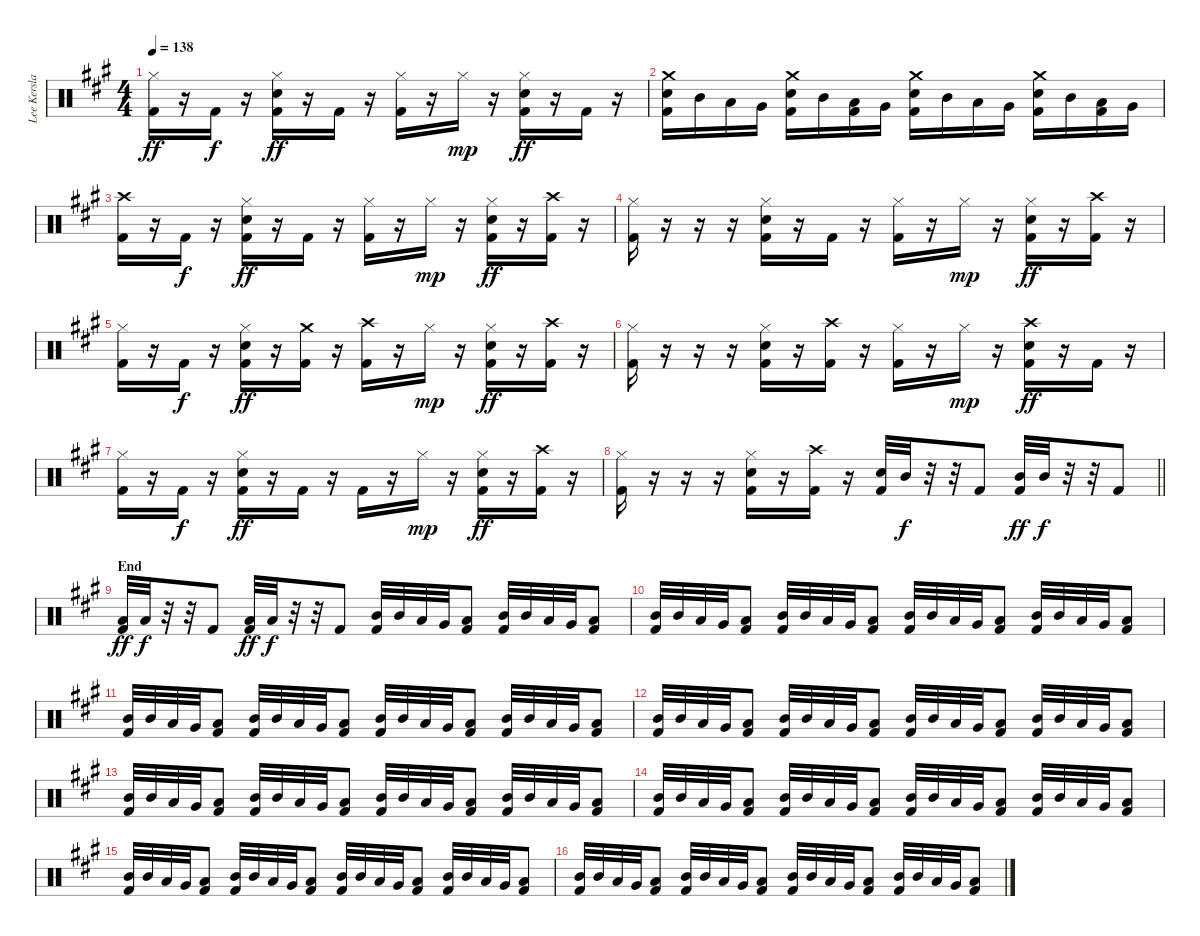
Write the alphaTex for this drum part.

\track ("Lee Kerslake" "Lee Kersla") {instrument percussion}
\staff {score}
\articulation defaults
\ts (4 4)
\tempo 138
\clef neutral
\ks a
("Hi-Hat (closed)" "Kick (hit) 2").16{dy ff} r.16 "Kick (hit) 2".16{dy f} r.16 ("Hi-Hat (closed)" "Snare (hit) 2" "Kick (hit) 2").16{dy ff} r.16 "Kick (hit) 2".16 r.16 ("Hi-Hat (closed)" "Kick (hit) 2").16 r.16 "Hi-Hat (closed)".16{dy mp} r.16 ("Hi-Hat (closed)" "Snare (hit) 2" "Kick (hit) 2").16{dy ff} r.16 "Kick (hit) 2".16 r.16 |
("Crash medium (hit)" "Snare (hit) 2" "Kick (hit) 2").16 "Mid Tom (hit)".16 "Low Tom (hit)".16 "Very Low Tom (hit)".16 ("Crash medium (hit)" "Snare (hit) 2" "Kick (hit) 2").16 "Mid Tom (hit)".16 ("Low Tom (hit)" "Kick (hit) 2").16 "Very Low Tom (hit)".16 ("Crash medium (hit)" "Snare (hit) 2" "Kick (hit) 2").16 "Mid Tom (hit)".16 "Low Tom (hit)".16 "Very Low Tom (hit)".16 ("Crash medium (hit)" "Snare (hit) 2" "Kick (hit) 2").16 "Mid Tom (hit)".16 ("Low Tom (hit)" "Kick (hit) 2").16 "Very Low Tom (hit)".16 |
("Crash high (hit)" "Kick (hit) 2").16 r.16 "Kick (hit) 2".16{dy f} r.16 ("Hi-Hat (closed)" "Snare (hit) 2" "Kick (hit) 2").16{dy ff} r.16 "Kick (hit) 2".16 r.16 ("Hi-Hat (closed)" "Kick (hit) 2").16 r.16 "Hi-Hat (closed)".16{dy mp} r.16 ("Hi-Hat (closed)" "Snare (hit) 2" "Kick (hit) 2").16{dy ff} r.16 ("Crash high (hit)" "Kick (hit) 2").16 r.16 |
("Hi-Hat (closed)" "Kick (hit) 2").16 r.16 r.16 r.16 ("Hi-Hat (closed)" "Snare (hit) 2" "Kick (hit) 2").16 r.16 "Kick (hit) 2".16 r.16 ("Hi-Hat (closed)" "Kick (hit) 2").16 r.16 "Hi-Hat (closed)".16{dy mp} r.16 ("Hi-Hat (closed)" "Snare (hit) 2" "Kick (hit) 2").16{dy ff} r.16 ("Crash high (hit)" "Kick (hit) 2").16 r.16 |
("Hi-Hat (closed)" "Kick (hit) 2").16 r.16 "Kick (hit) 2".16{dy f} r.16 ("Hi-Hat (closed)" "Snare (hit) 2" "Kick (hit) 2").16{dy ff} r.16 ("Crash medium (hit)" "Kick (hit) 2").16 r.16 ("Crash high (hit)" "Kick (hit) 2").16 r.16 "Hi-Hat (closed)".16{dy mp} r.16 ("Hi-Hat (closed)" "Snare (hit) 2" "Kick (hit) 2").16{dy ff} r.16 ("Crash high (hit)" "Kick (hit) 2").16 r.16 |
("Hi-Hat (closed)" "Kick (hit) 2").16 r.16 r.16 r.16 ("Hi-Hat (closed)" "Snare (hit) 2" "Kick (hit) 2").16 r.16 ("Crash high (hit)" "Kick (hit) 2").16 r.16 ("Hi-Hat (closed)" "Kick (hit) 2").16 r.16 "Hi-Hat (closed)".16{dy mp} r.16 ("Crash high (hit)" "Snare (hit) 2" "Kick (hit) 2").16{dy ff} r.16 "Kick (hit) 2".16 r.16 |
("Hi-Hat (closed)" "Kick (hit) 2").16 r.16 "Kick (hit) 2".16{dy f} r.16 ("Hi-Hat (closed)" "Snare (hit) 2" "Kick (hit) 2").16{dy ff} r.16 "Kick (hit) 2".16 r.16 "Kick (hit) 2".16 r.16 "Hi-Hat (closed)".16{dy mp} r.16 ("Hi-Hat (closed)" "Snare (hit) 2" "Kick (hit) 2").16{dy ff} r.16 ("Crash high (hit)" "Kick (hit) 2").16 r.16 |
\barLineRight lightlight
("Hi-Hat (closed)" "Kick (hit) 2").16 r.16 r.16 r.16 ("Hi-Hat (closed)" "Snare (hit) 2" "Kick (hit) 2").16 r.16 ("Crash high (hit)" "Kick (hit) 2").16 r.16 ("Snare (hit) 2" "Kick (hit) 2").32 "Mid Tom (hit)".32{dy f} r.32 r.32 "Kick (hit) 2".8 ("Mid Tom (hit)" "Kick (hit) 2").32{dy ff} "Mid Tom (hit)".32{dy f} r.32 r.32 "Kick (hit) 2".8 |
\section ("" "End")
("Low Tom (hit)" "Kick (hit) 2").32{dy ff} "Low Tom (hit)".32{dy f} r.32 r.32 "Kick (hit) 2".8 ("Low Tom (hit)" "Kick (hit) 2").32{dy ff} "Low Tom (hit)".32{dy f} r.32 r.32 "Kick (hit) 2".8 ("Mid Tom (hit)" "Kick (hit) 2").32 "Mid Tom (hit)".32 "Low Tom (hit)".32 "Very Low Tom (hit)".32 ("Low Floor Tom (hit)" "Kick (hit) 2").8 ("Mid Tom (hit)" "Kick (hit) 2").32 "Mid Tom (hit)".32 "Low Tom (hit)".32 "Very Low Tom (hit)".32 ("Low Floor Tom (hit)" "Kick (hit) 2").8 |
("Mid Tom (hit)" "Kick (hit) 2").32 "Mid Tom (hit)".32 "Low Tom (hit)".32 "Very Low Tom (hit)".32 ("Low Floor Tom (hit)" "Kick (hit) 2").8 ("Mid Tom (hit)" "Kick (hit) 2").32 "Mid Tom (hit)".32 "Low Tom (hit)".32 "Very Low Tom (hit)".32 ("Low Floor Tom (hit)" "Kick (hit) 2").8 ("Mid Tom (hit)" "Kick (hit) 2").32 "Mid Tom (hit)".32 "Low Tom (hit)".32 "Very Low Tom (hit)".32 ("Low Floor Tom (hit)" "Kick (hit) 2").8 ("Mid Tom (hit)" "Kick (hit) 2").32 "Mid Tom (hit)".32 "Low Tom (hit)".32 "Very Low Tom (hit)".32 ("Low Floor Tom (hit)" "Kick (hit) 2").8 |
("Mid Tom (hit)" "Kick (hit) 2").32 "Mid Tom (hit)".32 "Low Tom (hit)".32 "Very Low Tom (hit)".32 ("Low Floor Tom (hit)" "Kick (hit) 2").8 ("Mid Tom (hit)" "Kick (hit) 2").32 "Mid Tom (hit)".32 "Low Tom (hit)".32 "Very Low Tom (hit)".32 ("Low Floor Tom (hit)" "Kick (hit) 2").8 ("Mid Tom (hit)" "Kick (hit) 2").32 "Mid Tom (hit)".32 "Low Tom (hit)".32 "Very Low Tom (hit)".32 ("Low Floor Tom (hit)" "Kick (hit) 2").8 ("Mid Tom (hit)" "Kick (hit) 2").32 "Mid Tom (hit)".32 "Low Tom (hit)".32 "Very Low Tom (hit)".32 ("Low Floor Tom (hit)" "Kick (hit) 2").8 |
("Mid Tom (hit)" "Kick (hit) 2").32 "Mid Tom (hit)".32 "Low Tom (hit)".32 "Very Low Tom (hit)".32 ("Low Floor Tom (hit)" "Kick (hit) 2").8 ("Mid Tom (hit)" "Kick (hit) 2").32 "Mid Tom (hit)".32 "Low Tom (hit)".32 "Very Low Tom (hit)".32 ("Low Floor Tom (hit)" "Kick (hit) 2").8 ("Mid Tom (hit)" "Kick (hit) 2").32 "Mid Tom (hit)".32 "Low Tom (hit)".32 "Very Low Tom (hit)".32 ("Low Floor Tom (hit)" "Kick (hit) 2").8 ("Mid Tom (hit)" "Kick (hit) 2").32 "Mid Tom (hit)".32 "Low Tom (hit)".32 "Very Low Tom (hit)".32 ("Low Floor Tom (hit)" "Kick (hit) 2").8 |
("Mid Tom (hit)" "Kick (hit) 2").32{volume 6} "Mid Tom (hit)".32 "Low Tom (hit)".32 "Very Low Tom (hit)".32 ("Low Floor Tom (hit)" "Kick (hit) 2").8 ("Mid Tom (hit)" "Kick (hit) 2").32 "Mid Tom (hit)".32 "Low Tom (hit)".32 "Very Low Tom (hit)".32 ("Low Floor Tom (hit)" "Kick (hit) 2").8 ("Mid Tom (hit)" "Kick (hit) 2").32 "Mid Tom (hit)".32 "Low Tom (hit)".32 "Very Low Tom (hit)".32 ("Low Floor Tom (hit)" "Kick (hit) 2").8 ("Mid Tom (hit)" "Kick (hit) 2").32 "Mid Tom (hit)".32 "Low Tom (hit)".32 "Very Low Tom (hit)".32 ("Low Floor Tom (hit)" "Kick (hit) 2").8 |
("Mid Tom (hit)" "Kick (hit) 2").32 "Mid Tom (hit)".32 "Low Tom (hit)".32 "Very Low Tom (hit)".32 ("Low Floor Tom (hit)" "Kick (hit) 2").8 ("Mid Tom (hit)" "Kick (hit) 2").32 "Mid Tom (hit)".32 "Low Tom (hit)".32 "Very Low Tom (hit)".32 ("Low Floor Tom (hit)" "Kick (hit) 2").8 ("Mid Tom (hit)" "Kick (hit) 2").32 "Mid Tom (hit)".32 "Low Tom (hit)".32 "Very Low Tom (hit)".32 ("Low Floor Tom (hit)" "Kick (hit) 2").8 ("Mid Tom (hit)" "Kick (hit) 2").32 "Mid Tom (hit)".32 "Low Tom (hit)".32 "Very Low Tom (hit)".32 ("Low Floor Tom (hit)" "Kick (hit) 2").8 |
("Mid Tom (hit)" "Kick (hit) 2").32 "Mid Tom (hit)".32 "Low Tom (hit)".32 "Very Low Tom (hit)".32 ("Low Floor Tom (hit)" "Kick (hit) 2").8 ("Mid Tom (hit)" "Kick (hit) 2").32 "Mid Tom (hit)".32 "Low Tom (hit)".32 "Very Low Tom (hit)".32 ("Low Floor Tom (hit)" "Kick (hit) 2").8 ("Mid Tom (hit)" "Kick (hit) 2").32 "Mid Tom (hit)".32 "Low Tom (hit)".32 "Very Low Tom (hit)".32 ("Low Floor Tom (hit)" "Kick (hit) 2").8 ("Mid Tom (hit)" "Kick (hit) 2").32 "Mid Tom (hit)".32 "Low Tom (hit)".32 "Very Low Tom (hit)".32 ("Low Floor Tom (hit)" "Kick (hit) 2").8 |
("Mid Tom (hit)" "Kick (hit) 2").32 "Mid Tom (hit)".32 "Low Tom (hit)".32 "Very Low Tom (hit)".32 ("Low Floor Tom (hit)" "Kick (hit) 2").8 ("Mid Tom (hit)" "Kick (hit) 2").32 "Mid Tom (hit)".32 "Low Tom (hit)".32 "Very Low Tom (hit)".32 ("Low Floor Tom (hit)" "Kick (hit) 2").8 ("Mid Tom (hit)" "Kick (hit) 2").32 "Mid Tom (hit)".32 "Low Tom (hit)".32 "Very Low Tom (hit)".32 ("Low Floor Tom (hit)" "Kick (hit) 2").8 ("Mid Tom (hit)" "Kick (hit) 2").32 "Mid Tom (hit)".32 "Low Tom (hit)".32 "Very Low Tom (hit)".32 ("Low Floor Tom (hit)" "Kick (hit) 2").8
